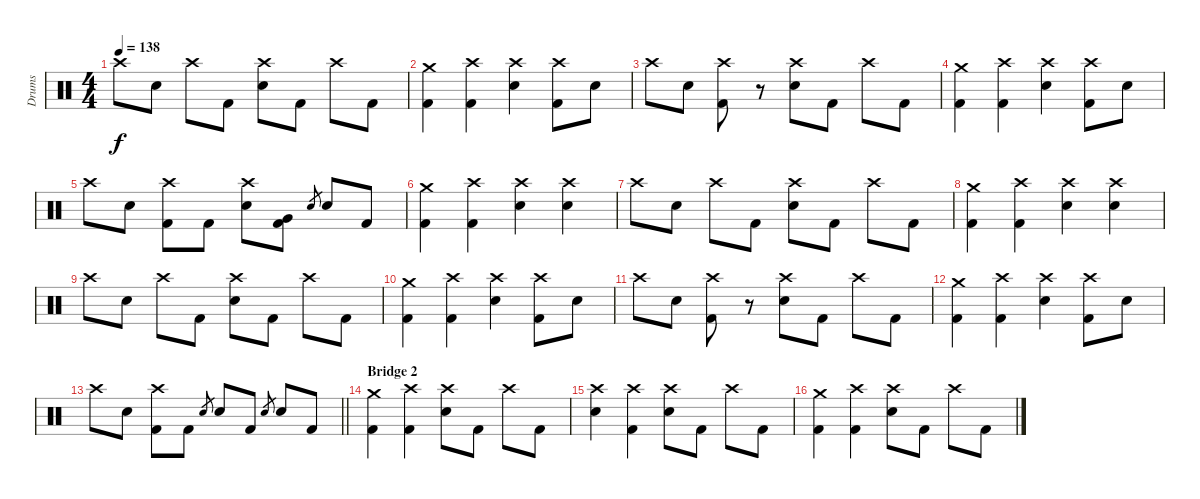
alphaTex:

\track ("Drums" "Drums") {instrument percussion}
\staff {score}
\articulation defaults
\ts (4 4)
\tempo 138
\clef neutral
\ks c "Crash high (hit)".8{dy f} "Electric Snare (hit)".8 "Crash high (hit)".8 "Kick (hit) 2".8
("Crash high (hit)" "Electric Snare (hit)").8 "Kick (hit) 2".8 "Crash high (hit)".8 "Kick (hit) 2".8 |
("Crash medium (hit)" "Kick (hit) 2").4 ("Crash high (hit)" "Kick (hit) 2").4 ("Crash high (hit)" "Electric Snare (hit)").4 ("Crash high (hit)" "Kick (hit) 2").8 "Electric Snare (hit)".8 |
"Crash high (hit)".8 "Electric Snare (hit)".8 ("Crash high (hit)" "Kick (hit) 2").8 r.8 ("Crash high (hit)" "Electric Snare (hit)").8 "Kick (hit) 2".8 "Crash high (hit)".8 "Kick (hit) 2".8 |
("Crash medium (hit)" "Kick (hit) 2").4 ("Crash high (hit)" "Kick (hit) 2").4 ("Crash high (hit)" "Electric Snare (hit)").4 ("Crash high (hit)" "Kick (hit) 2").8 "Electric Snare (hit)".8 |
"Crash high (hit)".8 "Electric Snare (hit)".8 ("Crash high (hit)" "Kick (hit) 2").8 "Kick (hit) 2".8 ("Crash high (hit)" "Electric Snare (hit)").8 ("Very Low Tom (hit)" "Kick (hit) 2").8 "Electric Snare (hit)".8{gr} "Electric Snare (hit)".8 "Kick (hit) 2".8 |
("Crash medium (hit)" "Kick (hit) 2").4 ("Crash high (hit)" "Kick (hit) 2").4 ("Crash high (hit)" "Electric Snare (hit)").4 ("Crash high (hit)" "Electric Snare (hit)").4 |
"Crash high (hit)".8 "Electric Snare (hit)".8 "Crash high (hit)".8 "Kick (hit) 2".8 ("Crash high (hit)" "Electric Snare (hit)").8 "Kick (hit) 2".8 "Crash high (hit)".8 "Kick (hit) 2".8 |
("Crash medium (hit)" "Kick (hit) 2").4 ("Crash high (hit)" "Kick (hit) 2").4 ("Crash high (hit)" "Electric Snare (hit)").4 ("Crash high (hit)" "Electric Snare (hit)").4 |
"Crash high (hit)".8 "Electric Snare (hit)".8 "Crash high (hit)".8 "Kick (hit) 2".8 ("Crash high (hit)" "Electric Snare (hit)").8 "Kick (hit) 2".8 "Crash high (hit)".8 "Kick (hit) 2".8 |
("Crash medium (hit)" "Kick (hit) 2").4 ("Crash high (hit)" "Kick (hit) 2").4 ("Crash high (hit)" "Electric Snare (hit)").4 ("Crash high (hit)" "Kick (hit) 2").8 "Electric Snare (hit)".8 |
"Crash high (hit)".8 "Electric Snare (hit)".8 ("Crash high (hit)" "Kick (hit) 2").8 r.8 ("Crash high (hit)" "Electric Snare (hit)").8 "Kick (hit) 2".8 "Crash high (hit)".8 "Kick (hit) 2".8 |
("Crash medium (hit)" "Kick (hit) 2").4 ("Crash high (hit)" "Kick (hit) 2").4 ("Crash high (hit)" "Electric Snare (hit)").4 ("Crash high (hit)" "Kick (hit) 2").8 "Electric Snare (hit)".8 |
\barLineRight lightlight "Crash high (hit)".8 "Electric Snare (hit)".8
("Crash high (hit)" "Kick (hit) 2").8 "Kick (hit) 2".8 "Electric Snare (hit)".8{gr} "Electric Snare (hit)".8 "Kick (hit) 2".8 "Electric Snare (hit)".8{gr} "Electric Snare (hit)".8 "Kick (hit) 2".8 |
\section ("" "Bridge 2")
("Crash medium (hit)" "Kick (hit) 2").4 ("Crash high (hit)" "Kick (hit) 2").4 ("Crash high (hit)" "Electric Snare (hit)").8 "Kick (hit) 2".8 "Crash high (hit)".8 "Kick (hit) 2".8 |
("Crash high (hit)" "Electric Snare (hit)").4 ("Crash high (hit)" "Kick (hit) 2").4 ("Crash high (hit)" "Electric Snare (hit)").8 "Kick (hit) 2".8 "Crash high (hit)".8 "Kick (hit) 2".8 |
("Crash medium (hit)" "Kick (hit) 2").4 ("Crash high (hit)" "Kick (hit) 2").4 ("Crash high (hit)" "Electric Snare (hit)").8 "Kick (hit) 2".8 "Crash high (hit)".8 "Kick (hit) 2".8
